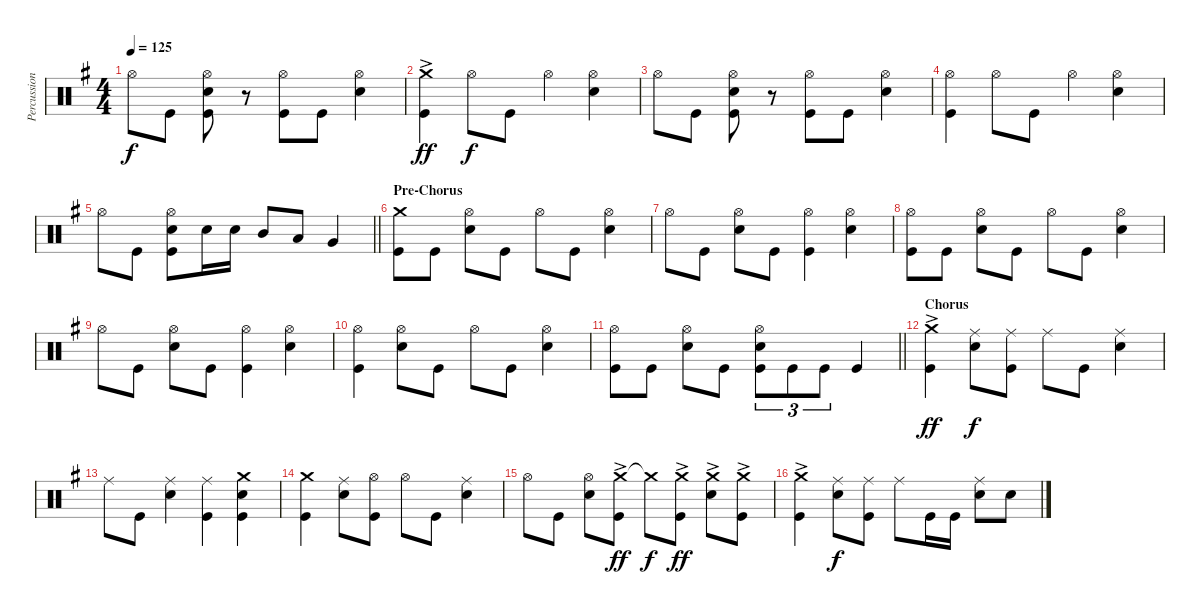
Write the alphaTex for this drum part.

\track ("Percussion" "Percussion") {instrument percussion}
\staff {score}
\articulation defaults
\ts (4 4)
\tempo 125
\clef neutral
\ks g "Hi-Hat (open)".8{dy f} "Kick (hit)".8
("Hi-Hat (open)" "Snare (hit) 2" "Kick (hit)").8 r.8 ("Hi-Hat (open)" "Kick (hit)").8 "Kick (hit)".8 ("Hi-Hat (open)" "Snare (hit) 2").4 |
("Crash medium (hit)"{ac} "Kick (hit)").4{dy ff} "Hi-Hat (open)".8{dy f} "Kick (hit)".8 "Hi-Hat (open)".4 ("Hi-Hat (open)" "Snare (hit) 2").4 |
"Hi-Hat (open)".8 "Kick (hit)".8 ("Hi-Hat (open)" "Snare (hit) 2" "Kick (hit)").8 r.8 ("Hi-Hat (open)" "Kick (hit)").8 "Kick (hit)".8 ("Hi-Hat (open)" "Snare (hit) 2").4 |
("Hi-Hat (open)" "Kick (hit)").4 "Hi-Hat (open)".8 "Kick (hit)".8 "Hi-Hat (open)".4 ("Hi-Hat (open)" "Snare (hit) 2").4 |
\barLineRight lightlight "Hi-Hat (open)".8 "Kick (hit)".8
("Hi-Hat (open)" "Snare (hit) 2" "Kick (hit)").8 "Snare (hit) 2".16 "Snare (hit) 2".16 "Mid Tom (hit)".8 "Low Tom (hit)".8 "Very Low Tom (hit)".4 |
\section ("" "Pre-Chorus")
("Crash medium (hit)" "Kick (hit)").8 "Kick (hit)".8 ("Hi-Hat (open)" "Snare (hit) 2").8 "Kick (hit)".8 "Hi-Hat (open)".8 "Kick (hit)".8 ("Hi-Hat (open)" "Snare (hit) 2").4 |
"Hi-Hat (open)".8 "Kick (hit)".8 ("Hi-Hat (open)" "Snare (hit) 2").8 "Kick (hit)".8 ("Hi-Hat (open)" "Kick (hit)").4 ("Hi-Hat (open)" "Snare (hit) 2").4 |
("Hi-Hat (open)" "Kick (hit)").8 "Kick (hit)".8 ("Hi-Hat (open)" "Snare (hit) 2").8 "Kick (hit)".8 "Hi-Hat (open)".8 "Kick (hit)".8 ("Hi-Hat (open)" "Snare (hit) 2").4 |
"Hi-Hat (open)".8 "Kick (hit)".8 ("Hi-Hat (open)" "Snare (hit) 2").8 "Kick (hit)".8 ("Hi-Hat (open)" "Kick (hit)").4 ("Hi-Hat (open)" "Snare (hit) 2").4 |
("Hi-Hat (open)" "Kick (hit)").4 ("Hi-Hat (open)" "Snare (hit) 2").8 "Kick (hit)".8 "Hi-Hat (open)".8 "Kick (hit)".8 ("Hi-Hat (open)" "Snare (hit) 2").4 |
\barLineRight lightlight
("Hi-Hat (open)" "Kick (hit)").8 "Kick (hit)".8 ("Hi-Hat (open)" "Snare (hit) 2").8 "Kick (hit)".8 ("Hi-Hat (open)" "Snare (hit) 2" "Kick (hit)").8{tu (3 2)} "Kick (hit)".8{tu (3 2)} "Kick (hit)".8{tu (3 2)} "Kick (hit)".4 |
\section ("" "Chorus")
("Crash medium (hit)"{ac} "Kick (hit)").4{dy ff} ("Ride (middle)" "Snare (hit) 2").8{dy f} ("Ride (middle)" "Kick (hit)").8 "Ride (middle)".8 "Kick (hit)".8 ("Ride (middle)" "Snare (hit) 2").4 |
"Ride (middle)".8 "Kick (hit)".8 ("Ride (middle)" "Snare (hit) 2").4 ("Ride (middle)" "Kick (hit)").4 ("Crash medium (hit)" "Snare (hit) 2" "Kick (hit)").4 |
("Crash medium (hit)" "Kick (hit)").4 ("Ride (middle)" "Snare (hit) 2").8 ("Hi-Hat (open)" "Kick (hit)").8 "Hi-Hat (open)".8 "Kick (hit)".8 ("Ride (middle)" "Snare (hit) 2").4 |
"Hi-Hat (open)".8 "Kick (hit)".8 ("Hi-Hat (open)" "Snare (hit) 2").8 ("Crash medium (hit)" "Kick (hit)"{ac}).8{dy ff} "Crash medium (hit)"{t}.8{dy f} ("Crash medium (hit)"{ac} "Kick (hit)"{ac}).8{dy ff} ("Crash medium (hit)"{ac} "Snare (hit) 2"{ac}).8 ("Crash medium (hit)"{ac} "Kick (hit)"{ac}).8 |
("Crash medium (hit)"{ac} "Kick (hit)").4 ("Ride (middle)" "Snare (hit) 2").8{dy f} ("Ride (middle)" "Kick (hit)").8 "Ride (middle)".8 "Kick (hit)".16 "Kick (hit)".16 ("Ride (middle)" "Snare (hit) 2").8 "Snare (hit) 2".8
